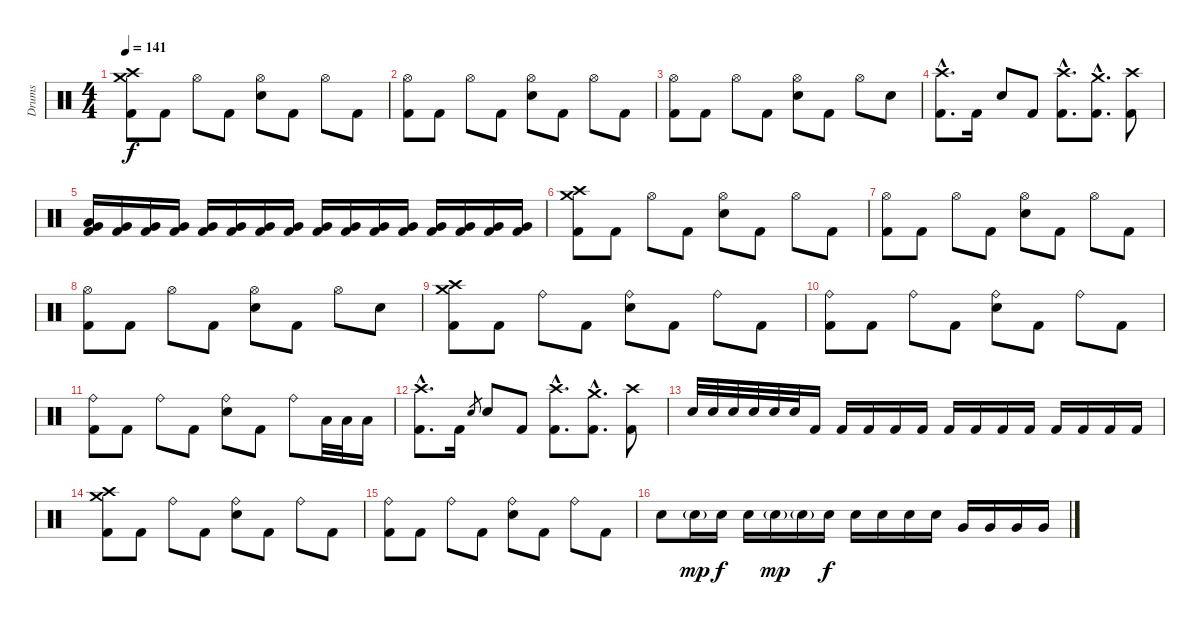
\track ("Drums" "Drums") {instrument percussion}
\staff {score}
\articulation defaults
\ts (4 4)
\tempo 141
\clef neutral
\ks c
("Crash high (hit)" "Crash medium (hit)" "Kick (hit) 2").8{dy f} "Kick (hit) 2".8 "Hi-Hat (open)".8 "Kick (hit) 2".8 ("Hi-Hat (open)" "Snare (hit) 2").8 "Kick (hit) 2".8 "Hi-Hat (open)".8 "Kick (hit) 2".8 |
("Hi-Hat (open)" "Kick (hit) 2").8 "Kick (hit) 2".8 "Hi-Hat (open)".8 "Kick (hit) 2".8 ("Hi-Hat (open)" "Snare (hit) 2").8 "Kick (hit) 2".8 "Hi-Hat (open)".8 "Kick (hit) 2".8 |
("Hi-Hat (open)" "Kick (hit) 2").8 "Kick (hit) 2".8 "Hi-Hat (open)".8 "Kick (hit) 2".8 ("Hi-Hat (open)" "Snare (hit) 2").8 "Kick (hit) 2".8 "Hi-Hat (open)".8 "Snare (hit) 2".8 |
("Crash high (hit)"{hac} "Kick (hit) 2"{hac}).8{d} "Kick (hit) 2".16 "Snare (hit) 2".8 "Kick (hit) 2".8 ("Crash high (hit)"{hac} "Kick (hit) 2"{hac}).8{d} ("Crash medium (hit)"{hac} "Kick (hit) 2"{hac}).8{d} ("Crash high (hit)" "Kick (hit) 2").8 |
("Very Low Tom (hit)" "Low Floor Tom (hit)" "Kick (hit) 2").16 ("Very Low Tom (hit)" "Kick (hit) 2").16 ("Very Low Tom (hit)" "Kick (hit) 2").16 ("Very Low Tom (hit)" "Kick (hit) 2").16 ("Very Low Tom (hit)" "Kick (hit) 2").16 ("Very Low Tom (hit)" "Kick (hit) 2").16 ("Very Low Tom (hit)" "Kick (hit) 2").16 ("Very Low Tom (hit)" "Kick (hit) 2").16 ("Very Low Tom (hit)" "Kick (hit) 2").16 ("Very Low Tom (hit)" "Kick (hit) 2").16 ("Very Low Tom (hit)" "Kick (hit) 2").16 ("Very Low Tom (hit)" "Kick (hit) 2").16 ("Very Low Tom (hit)" "Kick (hit) 2").16 ("Very Low Tom (hit)" "Kick (hit) 2").16 ("Very Low Tom (hit)" "Kick (hit) 2").16 ("Very Low Tom (hit)" "Kick (hit) 2").16 |
("Crash high (hit)" "Crash medium (hit)" "Kick (hit) 2").8 "Kick (hit) 2".8 "Hi-Hat (open)".8 "Kick (hit) 2".8 ("Hi-Hat (open)" "Snare (hit) 2").8 "Kick (hit) 2".8 "Hi-Hat (open)".8 "Kick (hit) 2".8 |
("Hi-Hat (open)" "Kick (hit) 2").8 "Kick (hit) 2".8 "Hi-Hat (open)".8 "Kick (hit) 2".8 ("Hi-Hat (open)" "Snare (hit) 2").8 "Kick (hit) 2".8 "Hi-Hat (open)".8 "Kick (hit) 2".8 |
("Hi-Hat (open)" "Kick (hit) 2").8 "Kick (hit) 2".8 "Hi-Hat (open)".8 "Kick (hit) 2".8 ("Hi-Hat (open)" "Snare (hit) 2").8 "Kick (hit) 2".8 "Hi-Hat (open)".8 "Snare (hit) 2".8 |
("Crash high (hit)" "Crash medium (hit)" "Kick (hit) 2").8 "Kick (hit) 2".8 "Ride (bell)".8 "Kick (hit) 2".8 ("Ride (bell)" "Snare (hit) 2").8 "Kick (hit) 2".8 "Ride (bell)".8 "Kick (hit) 2".8 |
("Ride (bell)" "Kick (hit) 2").8 "Kick (hit) 2".8 "Ride (bell)".8 "Kick (hit) 2".8 ("Ride (bell)" "Snare (hit) 2").8 "Kick (hit) 2".8 "Ride (bell)".8 "Kick (hit) 2".8 |
("Ride (bell)" "Kick (hit) 2").8 "Kick (hit) 2".8 "Ride (bell)".8 "Kick (hit) 2".8 ("Ride (bell)" "Snare (hit) 2").8 "Kick (hit) 2".8 "Ride (bell)".8 "Low Tom (hit)".32 "Low Tom (hit)".32 "Low Tom (hit)".16 |
("Crash high (hit)"{hac} "Kick (hit) 2"{hac}).8{d} "Kick (hit) 2".16 "Snare (hit) 2".8{gr} "Snare (hit) 2".8 "Kick (hit) 2".8 ("Crash high (hit)"{hac} "Kick (hit) 2"{hac}).8{d} ("Crash medium (hit)"{hac} "Kick (hit) 2"{hac}).8{d} ("Crash high (hit)" "Kick (hit) 2").8 |
"Snare (hit) 2".32 "Snare (hit) 2".32 "Snare (hit) 2".32 "Snare (hit) 2".32 "Snare (hit) 2".32 "Snare (hit) 2".32 "Kick (hit) 2".16 "Kick (hit) 2".16 "Kick (hit) 2".16 "Kick (hit) 2".16 "Kick (hit) 2".16 "Kick (hit) 2".16 "Kick (hit) 2".16 "Kick (hit) 2".16 "Kick (hit) 2".16 "Kick (hit) 2".16 "Kick (hit) 2".16 "Kick (hit) 2".16 "Kick (hit) 2".16 |
("Crash high (hit)" "Crash medium (hit)" "Kick (hit) 2").8 "Kick (hit) 2".8 "Ride (bell)".8 "Kick (hit) 2".8 ("Ride (bell)" "Snare (hit) 2").8 "Kick (hit) 2".8 "Ride (bell)".8 "Kick (hit) 2".8 |
("Ride (bell)" "Kick (hit) 2").8 "Kick (hit) 2".8 "Ride (bell)".8 "Kick (hit) 2".8 ("Ride (bell)" "Snare (hit) 2").8 "Kick (hit) 2".8 "Ride (bell)".8 "Kick (hit) 2".8 |
"Snare (hit) 2".8 "Snare (hit) 2"{g}.16{dy mp} "Snare (hit) 2".16{dy f} "Snare (hit) 2".16 "Snare (hit) 2"{g}.16{dy mp} "Snare (hit) 2"{g}.16 "Snare (hit) 2".16{dy f} "Snare (hit) 2".16 "Snare (hit) 2".16 "Snare (hit) 2".16 "Snare (hit) 2".16 "Very Low Tom (hit)".16 "Very Low Tom (hit)".16 "Very Low Tom (hit)".16 "Very Low Tom (hit)".16
